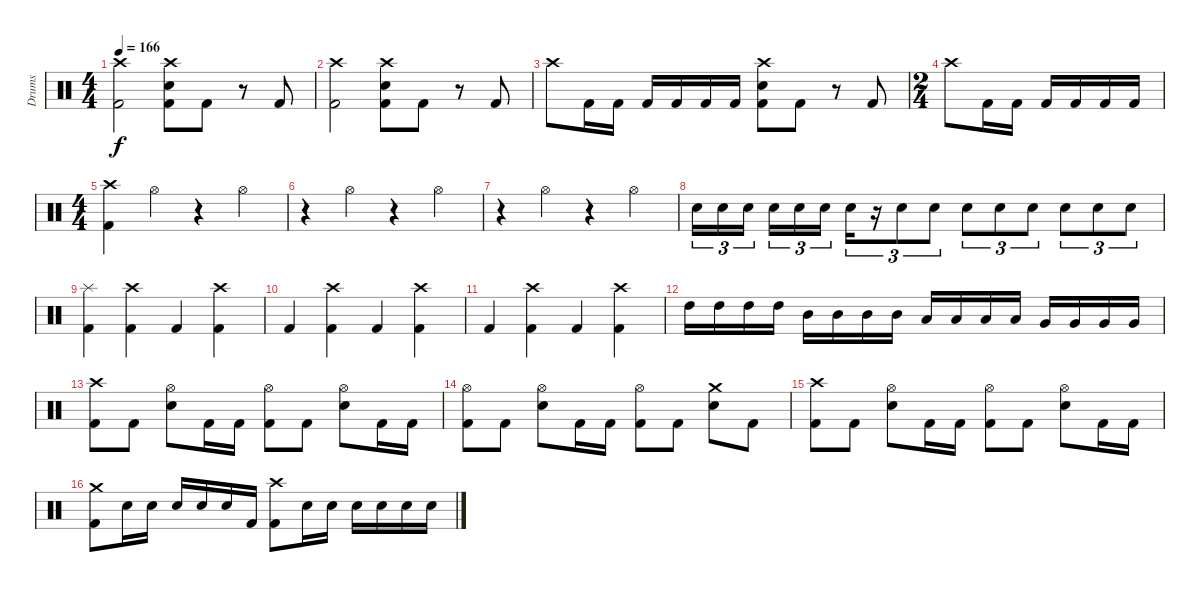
\track ("Drums" "Drums") {instrument percussion}
\staff {score}
\articulation defaults
\ts (4 4)
\tempo 166
\clef neutral
\ks c
("Crash high (hit)" "Kick (hit) 2").2{dy f} ("Crash high (hit)" "Snare (hit) 2" "Kick (hit) 2").8 "Kick (hit) 2".8 r.8 "Kick (hit) 2".8 |
("Crash high (hit)" "Kick (hit) 2").2 ("Crash high (hit)" "Snare (hit) 2" "Kick (hit) 2").8 "Kick (hit) 2".8 r.8 "Kick (hit) 2".8 |
"Crash high (hit)".8 "Kick (hit) 2".16 "Kick (hit) 2".16 "Kick (hit) 2".16 "Kick (hit) 2".16 "Kick (hit) 2".16 "Kick (hit) 2".16 ("Crash high (hit)" "Snare (hit) 2" "Kick (hit) 2").8 "Kick (hit) 2".8 r.8 "Kick (hit) 2".8 |
\ts (2 4)
"Crash high (hit)".8 "Kick (hit) 2".16 "Kick (hit) 2".16 "Kick (hit) 2".16 "Kick (hit) 2".16 "Kick (hit) 2".16 "Kick (hit) 2".16 |
\ts (4 4)
("Crash high (hit)" "Kick (hit) 2").4 "Hi-Hat (open)".4 r.4 "Hi-Hat (open)".4 |
r.4 "Hi-Hat (open)".4 r.4 "Hi-Hat (open)".4 |
r.4 "Hi-Hat (open)".4 r.4 "Hi-Hat (open)".4 |
"Electric Snare (hit)".16{tu (3 2)} "Electric Snare (hit)".16{tu (3 2)} "Electric Snare (hit)".16{tu (3 2) beam splitsecondary} "Electric Snare (hit)".16{tu (3 2)} "Electric Snare (hit)".16{tu (3 2)} "Electric Snare (hit)".16{tu (3 2)} "Electric Snare (hit)".16{tu (3 2)} r.16{tu (3 2)} "Electric Snare (hit)".8{tu (3 2)} "Electric Snare (hit)".8{tu (3 2)} "Electric Snare (hit)".8{tu (3 2)} "Electric Snare (hit)".8{tu (3 2)} "Electric Snare (hit)".8{tu (3 2)} "Electric Snare (hit)".8{tu (3 2)} "Electric Snare (hit)".8{tu (3 2)} "Electric Snare (hit)".8{tu (3 2)} |
("Splash (hit)" "Kick (hit) 2").4 ("Crash high (hit)" "Kick (hit) 2").4 "Kick (hit) 2".4 ("Crash high (hit)" "Kick (hit) 2").4 |
"Kick (hit) 2".4 ("Crash high (hit)" "Kick (hit) 2").4 "Kick (hit) 2".4 ("Crash high (hit)" "Kick (hit) 2").4 |
"Kick (hit) 2".4 ("Crash high (hit)" "Kick (hit) 2").4 "Kick (hit) 2".4 ("Crash high (hit)" "Kick (hit) 2").4 |
"High Tom (hit)".16 "High Tom (hit)".16 "High Tom (hit)".16 "High Tom (hit)".16 "Mid Tom (hit)".16 "Mid Tom (hit)".16 "Mid Tom (hit)".16 "Mid Tom (hit)".16 "Low Tom (hit)".16 "Low Tom (hit)".16 "Low Tom (hit)".16 "Low Tom (hit)".16 "Very Low Tom (hit)".16 "Very Low Tom (hit)".16 "Very Low Tom (hit)".16 "Very Low Tom (hit)".16 |
("Crash high (hit)" "Kick (hit) 2").8 "Kick (hit) 2".8 ("Hi-Hat (open)" "Electric Snare (hit)").8 "Kick (hit) 2".16 "Kick (hit) 2".16 ("Hi-Hat (open)" "Kick (hit) 2").8 "Kick (hit) 2".8 ("Hi-Hat (open)" "Electric Snare (hit)").8 "Kick (hit) 2".16 "Kick (hit) 2".16 |
("Hi-Hat (open)" "Kick (hit) 2").8 "Kick (hit) 2".8 ("Hi-Hat (open)" "Electric Snare (hit)").8 "Kick (hit) 2".16 "Kick (hit) 2".16 ("Hi-Hat (open)" "Kick (hit) 2").8 "Kick (hit) 2".8 ("Crash medium (hit)" "Electric Snare (hit)").8 "Kick (hit) 2".8 |
("Crash high (hit)" "Kick (hit) 2").8 "Kick (hit) 2".8 ("Hi-Hat (open)" "Electric Snare (hit)").8 "Kick (hit) 2".16 "Kick (hit) 2".16 ("Hi-Hat (open)" "Kick (hit) 2").8 "Kick (hit) 2".8 ("Hi-Hat (open)" "Electric Snare (hit)").8 "Kick (hit) 2".16 "Kick (hit) 2".16 |
("Crash medium (hit)" "Kick (hit) 2").8 "Electric Snare (hit)".16 "Electric Snare (hit)".16 "Electric Snare (hit)".16 "Electric Snare (hit)".16 "Electric Snare (hit)".16 "Kick (hit) 2".16 ("Crash high (hit)" "Kick (hit) 2").8 "Electric Snare (hit)".16 "Electric Snare (hit)".16 "Electric Snare (hit)".16 "Electric Snare (hit)".16 "Electric Snare (hit)".16 "Electric Snare (hit)".16
